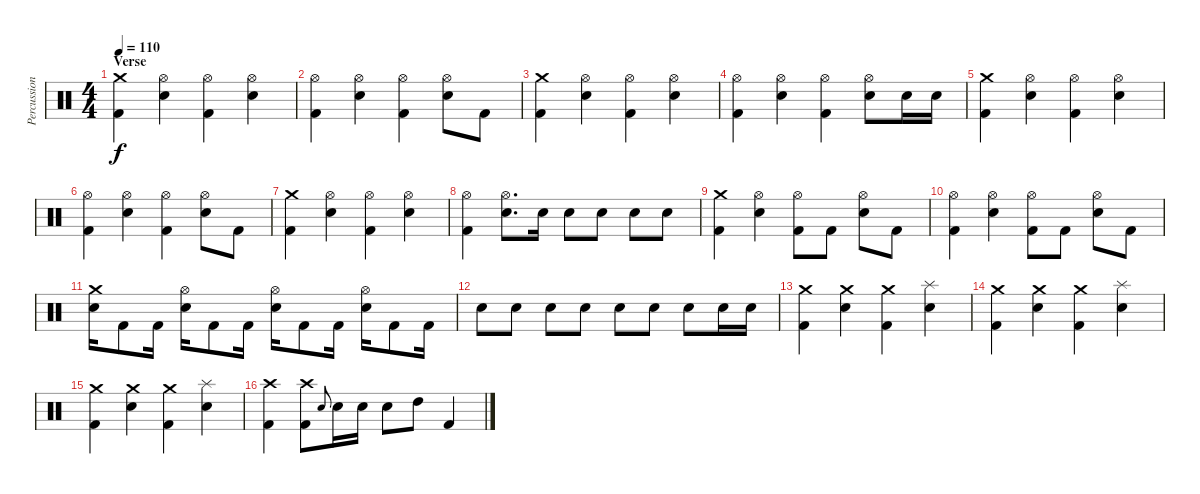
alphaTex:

\track ("Percussion" "Percussion") {instrument percussion}
\staff {score}
\articulation defaults
\ts (4 4)
\section ("" "Verse")
\tempo 110
\clef neutral
\ks c
("Crash medium (hit)" "Kick (hit) 2").4{dy f} ("Hi-Hat (open)" "Electric Snare (hit)").4 ("Hi-Hat (open)" "Kick (hit) 2").4 ("Hi-Hat (open)" "Electric Snare (hit)").4 |
("Hi-Hat (open)" "Kick (hit) 2").4 ("Hi-Hat (open)" "Electric Snare (hit)").4 ("Hi-Hat (open)" "Kick (hit) 2").4 ("Hi-Hat (open)" "Electric Snare (hit)").8 "Kick (hit) 2".8 |
("Crash medium (hit)" "Kick (hit) 2").4 ("Hi-Hat (open)" "Electric Snare (hit)").4 ("Hi-Hat (open)" "Kick (hit) 2").4 ("Hi-Hat (open)" "Electric Snare (hit)").4 |
("Hi-Hat (open)" "Kick (hit) 2").4 ("Hi-Hat (open)" "Electric Snare (hit)").4 ("Hi-Hat (open)" "Kick (hit) 2").4 ("Hi-Hat (open)" "Electric Snare (hit)").8 "Electric Snare (hit)".16 "Electric Snare (hit)".16 |
("Crash medium (hit)" "Kick (hit) 2").4 ("Hi-Hat (open)" "Electric Snare (hit)").4 ("Hi-Hat (open)" "Kick (hit) 2").4 ("Hi-Hat (open)" "Electric Snare (hit)").4 |
("Hi-Hat (open)" "Kick (hit) 2").4 ("Hi-Hat (open)" "Electric Snare (hit)").4 ("Hi-Hat (open)" "Kick (hit) 2").4 ("Hi-Hat (open)" "Electric Snare (hit)").8 "Kick (hit) 2".8 |
("Crash medium (hit)" "Kick (hit) 2").4 ("Hi-Hat (open)" "Electric Snare (hit)").4 ("Hi-Hat (open)" "Kick (hit) 2").4 ("Hi-Hat (open)" "Electric Snare (hit)").4 |
("Hi-Hat (open)" "Kick (hit) 2").4 ("Hi-Hat (open)" "Electric Snare (hit)").8{d} "Electric Snare (hit)".16 "Electric Snare (hit)".8 "Electric Snare (hit)".8 "Electric Snare (hit)".8 "Electric Snare (hit)".8 |
("Crash medium (hit)" "Kick (hit) 2").4 ("Hi-Hat (open)" "Electric Snare (hit)").4 ("Hi-Hat (open)" "Kick (hit) 2").8 "Kick (hit) 2".8 ("Hi-Hat (open)" "Electric Snare (hit)").8 "Kick (hit) 2".8 |
("Hi-Hat (open)" "Kick (hit) 2").4 ("Hi-Hat (open)" "Electric Snare (hit)").4 ("Hi-Hat (open)" "Kick (hit) 2").8 "Kick (hit) 2".8 ("Hi-Hat (open)" "Electric Snare (hit)").8 "Kick (hit) 2".8 |
("Crash medium (hit)" "Electric Snare (hit)").16 "Kick (hit) 2".8 "Kick (hit) 2".16 ("Hi-Hat (open)" "Electric Snare (hit)").16 "Kick (hit) 2".8 "Kick (hit) 2".16 ("Hi-Hat (open)" "Electric Snare (hit)").16 "Kick (hit) 2".8 "Kick (hit) 2".16 ("Hi-Hat (open)" "Electric Snare (hit)").16 "Kick (hit) 2".8 "Kick (hit) 2".16 |
"Electric Snare (hit)".8 "Electric Snare (hit)".8 "Electric Snare (hit)".8 "Electric Snare (hit)".8 "Electric Snare (hit)".8 "Electric Snare (hit)".8 "Electric Snare (hit)".8 "Electric Snare (hit)".16 "Electric Snare (hit)".16 |
("Crash medium (hit)" "Kick (hit) 2").4 ("Crash medium (hit)" "Electric Snare (hit)").4 ("Crash medium (hit)" "Kick (hit) 2").4 ("Splash (hit)" "Electric Snare (hit)").4 |
("Crash medium (hit)" "Kick (hit) 2").4 ("Crash medium (hit)" "Electric Snare (hit)").4 ("Crash medium (hit)" "Kick (hit) 2").4 ("Splash (hit)" "Electric Snare (hit)").4 |
("Crash medium (hit)" "Kick (hit) 2").4 ("Crash medium (hit)" "Electric Snare (hit)").4 ("Crash medium (hit)" "Kick (hit) 2").4 ("Splash (hit)" "Electric Snare (hit)").4 |
("Crash high (hit)" "Kick (hit) 2").4 ("Crash high (hit)" "Kick (hit) 2").8 "Electric Snare (hit)".8{gr onbeat} "Electric Snare (hit)".16 "Electric Snare (hit)".16 "Electric Snare (hit)".8 "High Tom (hit)".8 "Kick (hit) 2".4
